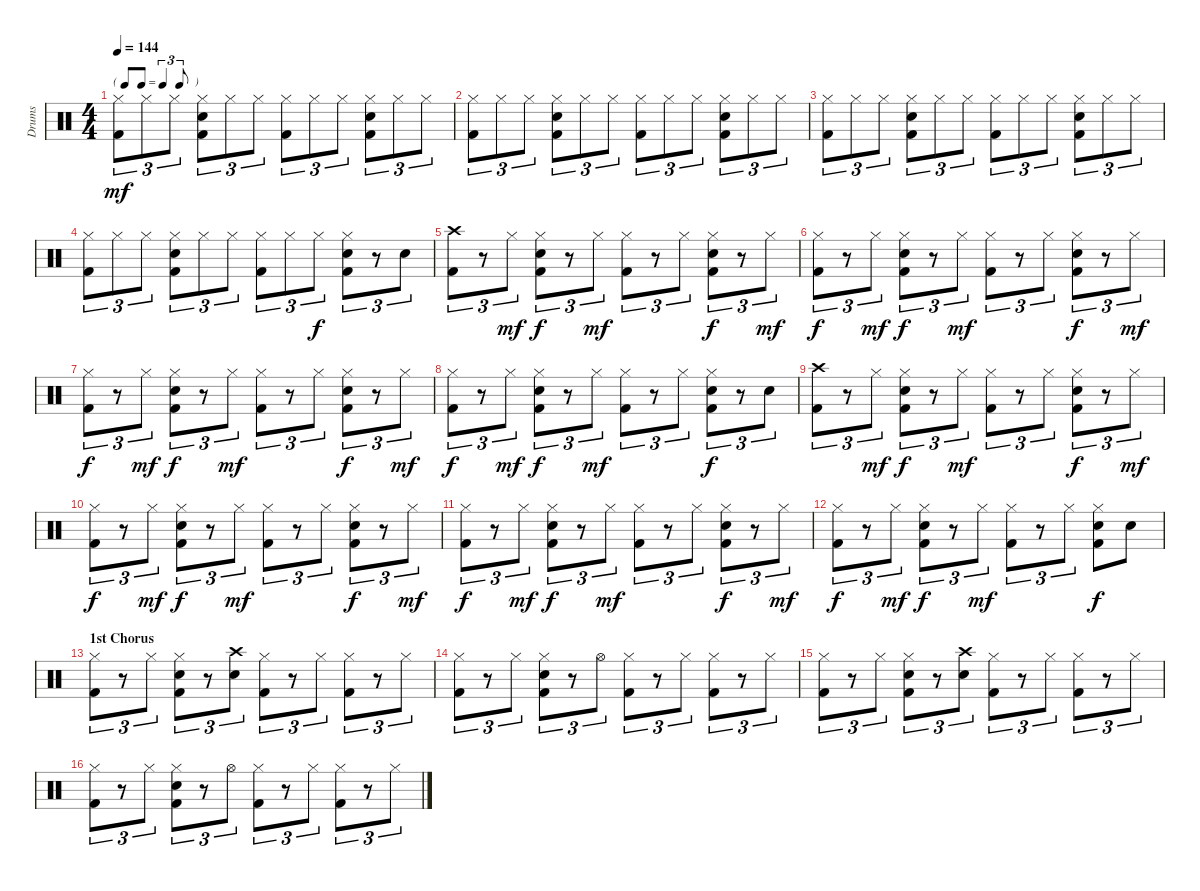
\track ("Drums" "Drums") {instrument percussion}
\staff {score}
\articulation defaults
\ts (4 4)
\tf triplet8th
\tempo 144
\clef neutral
\ks c
("Hi-Hat (closed)" "Kick (hit) 2").8{tu (3 2) dy mf} "Hi-Hat (closed)".8{tu (3 2)} "Hi-Hat (closed)".8{tu (3 2)} ("Hi-Hat (closed)" "Snare (hit) 2" "Kick (hit) 2").8{tu (3 2)} "Hi-Hat (closed)".8{tu (3 2)} "Hi-Hat (closed)".8{tu (3 2)} ("Hi-Hat (closed)" "Kick (hit) 2").8{tu (3 2)} "Hi-Hat (closed)".8{tu (3 2)} "Hi-Hat (closed)".8{tu (3 2)} ("Hi-Hat (closed)" "Snare (hit) 2" "Kick (hit) 2").8{tu (3 2)} "Hi-Hat (closed)".8{tu (3 2)} "Hi-Hat (closed)".8{tu (3 2)} |
("Hi-Hat (closed)" "Kick (hit) 2").8{tu (3 2)} "Hi-Hat (closed)".8{tu (3 2)} "Hi-Hat (closed)".8{tu (3 2)} ("Hi-Hat (closed)" "Snare (hit) 2" "Kick (hit) 2").8{tu (3 2)} "Hi-Hat (closed)".8{tu (3 2)} "Hi-Hat (closed)".8{tu (3 2)} ("Hi-Hat (closed)" "Kick (hit) 2").8{tu (3 2)} "Hi-Hat (closed)".8{tu (3 2)} "Hi-Hat (closed)".8{tu (3 2)} ("Hi-Hat (closed)" "Snare (hit) 2" "Kick (hit) 2").8{tu (3 2)} "Hi-Hat (closed)".8{tu (3 2)} "Hi-Hat (closed)".8{tu (3 2)} |
("Hi-Hat (closed)" "Kick (hit) 2").8{tu (3 2)} "Hi-Hat (closed)".8{tu (3 2)} "Hi-Hat (closed)".8{tu (3 2)} ("Hi-Hat (closed)" "Snare (hit) 2" "Kick (hit) 2").8{tu (3 2)} "Hi-Hat (closed)".8{tu (3 2)} "Hi-Hat (closed)".8{tu (3 2)} ("Hi-Hat (closed)" "Kick (hit) 2").8{tu (3 2)} "Hi-Hat (closed)".8{tu (3 2)} "Hi-Hat (closed)".8{tu (3 2)} ("Hi-Hat (closed)" "Snare (hit) 2" "Kick (hit) 2").8{tu (3 2)} "Hi-Hat (closed)".8{tu (3 2)} "Hi-Hat (closed)".8{tu (3 2)} |
("Hi-Hat (closed)" "Kick (hit) 2").8{tu (3 2)} "Hi-Hat (closed)".8{tu (3 2)} "Hi-Hat (closed)".8{tu (3 2)} ("Hi-Hat (closed)" "Snare (hit) 2" "Kick (hit) 2").8{tu (3 2)} "Hi-Hat (closed)".8{tu (3 2)} "Hi-Hat (closed)".8{tu (3 2)} ("Hi-Hat (closed)" "Kick (hit) 2").8{tu (3 2)} "Hi-Hat (closed)".8{tu (3 2)} "Hi-Hat (closed)".8{tu (3 2) dy f} ("Hi-Hat (closed)" "Snare (hit) 2" "Kick (hit) 2").8{tu (3 2)} r.8{tu (3 2)} "Snare (hit) 2".8{tu (3 2)} |
("Crash high (hit)" "Kick (hit) 2").8{tu (3 2)} r.8{tu (3 2)} "Hi-Hat (closed)".8{tu (3 2) dy mf} ("Hi-Hat (closed)" "Snare (hit) 2" "Kick (hit) 2").8{tu (3 2) dy f} r.8{tu (3 2)} "Hi-Hat (closed)".8{tu (3 2) dy mf} ("Hi-Hat (closed)" "Kick (hit) 2").8{tu (3 2)} r.8{tu (3 2)} "Hi-Hat (closed)".8{tu (3 2)} ("Hi-Hat (closed)" "Snare (hit) 2" "Kick (hit) 2").8{tu (3 2) dy f} r.8{tu (3 2)} "Hi-Hat (closed)".8{tu (3 2) dy mf} |
("Hi-Hat (closed)" "Kick (hit) 2").8{tu (3 2) dy f} r.8{tu (3 2)} "Hi-Hat (closed)".8{tu (3 2) dy mf} ("Hi-Hat (closed)" "Snare (hit) 2" "Kick (hit) 2").8{tu (3 2) dy f} r.8{tu (3 2)} "Hi-Hat (closed)".8{tu (3 2) dy mf} ("Hi-Hat (closed)" "Kick (hit) 2").8{tu (3 2)} r.8{tu (3 2)} "Hi-Hat (closed)".8{tu (3 2)} ("Hi-Hat (closed)" "Snare (hit) 2" "Kick (hit) 2").8{tu (3 2) dy f} r.8{tu (3 2)} "Hi-Hat (closed)".8{tu (3 2) dy mf} |
("Hi-Hat (closed)" "Kick (hit) 2").8{tu (3 2) dy f} r.8{tu (3 2)} "Hi-Hat (closed)".8{tu (3 2) dy mf} ("Hi-Hat (closed)" "Snare (hit) 2" "Kick (hit) 2").8{tu (3 2) dy f} r.8{tu (3 2)} "Hi-Hat (closed)".8{tu (3 2) dy mf} ("Hi-Hat (closed)" "Kick (hit) 2").8{tu (3 2)} r.8{tu (3 2)} "Hi-Hat (closed)".8{tu (3 2)} ("Hi-Hat (closed)" "Snare (hit) 2" "Kick (hit) 2").8{tu (3 2) dy f} r.8{tu (3 2)} "Hi-Hat (closed)".8{tu (3 2) dy mf} |
("Hi-Hat (closed)" "Kick (hit) 2").8{tu (3 2) dy f} r.8{tu (3 2)} "Hi-Hat (closed)".8{tu (3 2) dy mf} ("Hi-Hat (closed)" "Snare (hit) 2" "Kick (hit) 2").8{tu (3 2) dy f} r.8{tu (3 2)} "Hi-Hat (closed)".8{tu (3 2) dy mf} ("Hi-Hat (closed)" "Kick (hit) 2").8{tu (3 2)} r.8{tu (3 2)} "Hi-Hat (closed)".8{tu (3 2)} ("Hi-Hat (closed)" "Snare (hit) 2" "Kick (hit) 2").8{tu (3 2) dy f} r.8{tu (3 2)} "Snare (hit) 2".8{tu (3 2)} |
("Crash high (hit)" "Kick (hit) 2").8{tu (3 2)} r.8{tu (3 2)} "Hi-Hat (closed)".8{tu (3 2) dy mf} ("Hi-Hat (closed)" "Snare (hit) 2" "Kick (hit) 2").8{tu (3 2) dy f} r.8{tu (3 2)} "Hi-Hat (closed)".8{tu (3 2) dy mf} ("Hi-Hat (closed)" "Kick (hit) 2").8{tu (3 2)} r.8{tu (3 2)} "Hi-Hat (closed)".8{tu (3 2)} ("Hi-Hat (closed)" "Snare (hit) 2" "Kick (hit) 2").8{tu (3 2) dy f} r.8{tu (3 2)} "Hi-Hat (closed)".8{tu (3 2) dy mf} |
("Hi-Hat (closed)" "Kick (hit) 2").8{tu (3 2) dy f} r.8{tu (3 2)} "Hi-Hat (closed)".8{tu (3 2) dy mf} ("Hi-Hat (closed)" "Snare (hit) 2" "Kick (hit) 2").8{tu (3 2) dy f} r.8{tu (3 2)} "Hi-Hat (closed)".8{tu (3 2) dy mf} ("Hi-Hat (closed)" "Kick (hit) 2").8{tu (3 2)} r.8{tu (3 2)} "Hi-Hat (closed)".8{tu (3 2)} ("Hi-Hat (closed)" "Snare (hit) 2" "Kick (hit) 2").8{tu (3 2) dy f} r.8{tu (3 2)} "Hi-Hat (closed)".8{tu (3 2) dy mf} |
("Hi-Hat (closed)" "Kick (hit) 2").8{tu (3 2) dy f} r.8{tu (3 2)} "Hi-Hat (closed)".8{tu (3 2) dy mf} ("Hi-Hat (closed)" "Snare (hit) 2" "Kick (hit) 2").8{tu (3 2) dy f} r.8{tu (3 2)} "Hi-Hat (closed)".8{tu (3 2) dy mf} ("Hi-Hat (closed)" "Kick (hit) 2").8{tu (3 2)} r.8{tu (3 2)} "Hi-Hat (closed)".8{tu (3 2)} ("Hi-Hat (closed)" "Snare (hit) 2" "Kick (hit) 2").8{tu (3 2) dy f} r.8{tu (3 2)} "Hi-Hat (closed)".8{tu (3 2) dy mf} |
("Hi-Hat (closed)" "Kick (hit) 2").8{tu (3 2) dy f} r.8{tu (3 2)} "Hi-Hat (closed)".8{tu (3 2) dy mf} ("Hi-Hat (closed)" "Snare (hit) 2" "Kick (hit) 2").8{tu (3 2) dy f} r.8{tu (3 2)} "Hi-Hat (closed)".8{tu (3 2) dy mf} ("Hi-Hat (closed)" "Kick (hit) 2").8{tu (3 2)} r.8{tu (3 2)} "Hi-Hat (closed)".8{tu (3 2)} ("Hi-Hat (closed)" "Snare (hit) 2" "Kick (hit) 2").8{dy f} "Snare (hit) 2".8 |
\section ("" "1st Chorus")
("Hi-Hat (closed)" "Kick (hit) 2").8{tu (3 2)} r.8{tu (3 2)} "Hi-Hat (closed)".8{tu (3 2)} ("Hi-Hat (closed)" "Snare (hit) 2" "Kick (hit) 2").8{tu (3 2)} r.8{tu (3 2)} ("Crash high (hit)" "Snare (hit) 2").8{tu (3 2)} ("Hi-Hat (closed)" "Kick (hit) 2").8{tu (3 2)} r.8{tu (3 2)} "Hi-Hat (closed)".8{tu (3 2)} ("Hi-Hat (closed)" "Kick (hit) 2").8{tu (3 2)} r.8{tu (3 2)} "Hi-Hat (closed)".8{tu (3 2)} |
("Hi-Hat (closed)" "Kick (hit) 2").8{tu (3 2)} r.8{tu (3 2)} "Hi-Hat (closed)".8{tu (3 2)} ("Hi-Hat (closed)" "Snare (hit) 2" "Kick (hit) 2").8{tu (3 2)} r.8{tu (3 2)} "Hi-Hat (open)".8{tu (3 2)} ("Hi-Hat (closed)" "Kick (hit) 2").8{tu (3 2)} r.8{tu (3 2)} "Hi-Hat (closed)".8{tu (3 2)} ("Hi-Hat (closed)" "Kick (hit) 2").8{tu (3 2)} r.8{tu (3 2)} "Hi-Hat (closed)".8{tu (3 2)} |
("Hi-Hat (closed)" "Kick (hit) 2").8{tu (3 2)} r.8{tu (3 2)} "Hi-Hat (closed)".8{tu (3 2)} ("Hi-Hat (closed)" "Snare (hit) 2" "Kick (hit) 2").8{tu (3 2)} r.8{tu (3 2)} ("Crash high (hit)" "Snare (hit) 2").8{tu (3 2)} ("Hi-Hat (closed)" "Kick (hit) 2").8{tu (3 2)} r.8{tu (3 2)} "Hi-Hat (closed)".8{tu (3 2)} ("Hi-Hat (closed)" "Kick (hit) 2").8{tu (3 2)} r.8{tu (3 2)} "Hi-Hat (closed)".8{tu (3 2)} |
("Hi-Hat (closed)" "Kick (hit) 2").8{tu (3 2)} r.8{tu (3 2)} "Hi-Hat (closed)".8{tu (3 2)} ("Hi-Hat (closed)" "Snare (hit) 2" "Kick (hit) 2").8{tu (3 2)} r.8{tu (3 2)} "Hi-Hat (open)".8{tu (3 2)} ("Hi-Hat (closed)" "Kick (hit) 2").8{tu (3 2)} r.8{tu (3 2)} "Hi-Hat (closed)".8{tu (3 2)} ("Hi-Hat (closed)" "Kick (hit) 2").8{tu (3 2)} r.8{tu (3 2)} "Hi-Hat (closed)".8{tu (3 2)}
